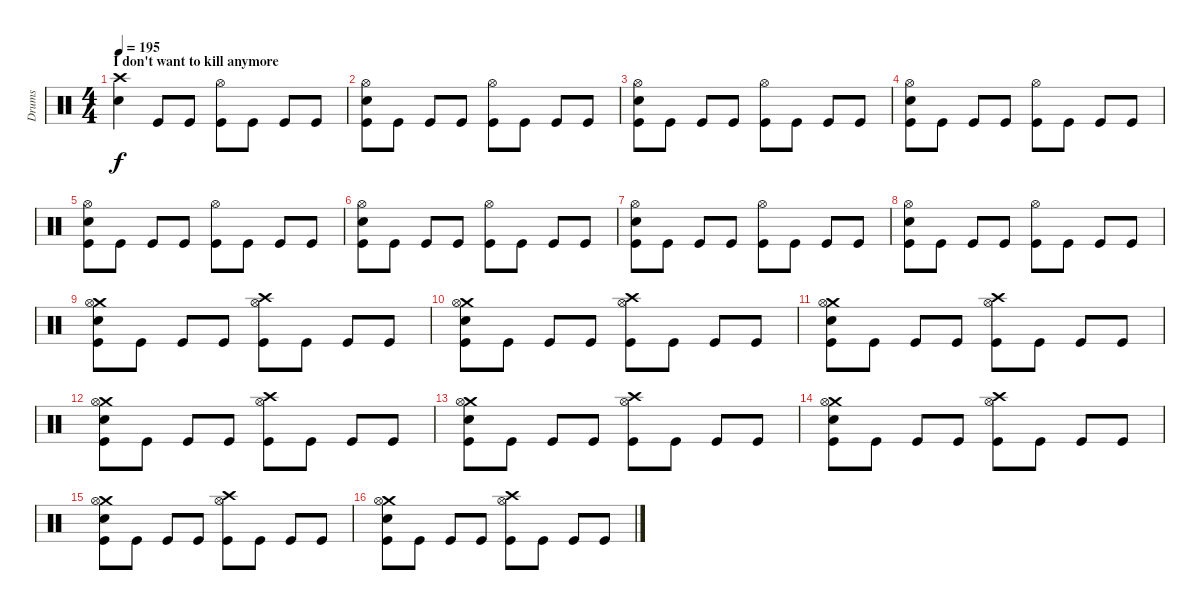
\track ("Drums" "Drums") {instrument percussion}
\staff {score}
\articulation defaults
\ts (4 4)
\section ("" "I don't want to kill anymore")
\tempo 195
\clef neutral
\ks c
("Crash high (hit)" "Electric Snare (hit)").4{dy f} "Kick (hit)".8 "Kick (hit)".8 ("Hi-Hat (open)" "Kick (hit)").8 "Kick (hit)".8 "Kick (hit)".8 "Kick (hit)".8 |
("Hi-Hat (open)" "Electric Snare (hit)" "Kick (hit)").8 "Kick (hit)".8 "Kick (hit)".8 "Kick (hit)".8 ("Hi-Hat (open)" "Kick (hit)").8 "Kick (hit)".8 "Kick (hit)".8 "Kick (hit)".8 |
("Electric Snare (hit)" "Hi-Hat (open)" "Kick (hit)").8 "Kick (hit)".8 "Kick (hit)".8 "Kick (hit)".8 ("Hi-Hat (open)" "Kick (hit)").8 "Kick (hit)".8 "Kick (hit)".8 "Kick (hit)".8 |
("Hi-Hat (open)" "Electric Snare (hit)" "Kick (hit)").8 "Kick (hit)".8 "Kick (hit)".8 "Kick (hit)".8 ("Hi-Hat (open)" "Kick (hit)").8 "Kick (hit)".8 "Kick (hit)".8 "Kick (hit)".8 |
("Electric Snare (hit)" "Hi-Hat (open)" "Kick (hit)").8 "Kick (hit)".8 "Kick (hit)".8 "Kick (hit)".8 ("Hi-Hat (open)" "Kick (hit)").8 "Kick (hit)".8 "Kick (hit)".8 "Kick (hit)".8 |
("Hi-Hat (open)" "Electric Snare (hit)" "Kick (hit)").8 "Kick (hit)".8 "Kick (hit)".8 "Kick (hit)".8 ("Hi-Hat (open)" "Kick (hit)").8 "Kick (hit)".8 "Kick (hit)".8 "Kick (hit)".8 |
("Electric Snare (hit)" "Hi-Hat (open)" "Kick (hit)").8 "Kick (hit)".8 "Kick (hit)".8 "Kick (hit)".8 ("Hi-Hat (open)" "Kick (hit)").8 "Kick (hit)".8 "Kick (hit)".8 "Kick (hit)".8 |
("Hi-Hat (open)" "Electric Snare (hit)" "Kick (hit)").8 "Kick (hit)".8 "Kick (hit)".8 "Kick (hit)".8 ("Hi-Hat (open)" "Kick (hit)").8 "Kick (hit)".8 "Kick (hit)".8 "Kick (hit)".8 |
("Crash medium (hit)" "Electric Snare (hit)" "Hi-Hat (open)" "Kick (hit)").8 "Kick (hit)".8 "Kick (hit)".8 "Kick (hit)".8 ("Crash high (hit)" "Hi-Hat (open)" "Kick (hit)").8 "Kick (hit)".8 "Kick (hit)".8 "Kick (hit)".8 |
("Crash medium (hit)" "Hi-Hat (open)" "Electric Snare (hit)" "Kick (hit)").8 "Kick (hit)".8 "Kick (hit)".8 "Kick (hit)".8 ("Crash high (hit)" "Hi-Hat (open)" "Kick (hit)").8 "Kick (hit)".8 "Kick (hit)".8 "Kick (hit)".8 |
("Crash medium (hit)" "Electric Snare (hit)" "Hi-Hat (open)" "Kick (hit)").8 "Kick (hit)".8 "Kick (hit)".8 "Kick (hit)".8 ("Crash high (hit)" "Hi-Hat (open)" "Kick (hit)").8 "Kick (hit)".8 "Kick (hit)".8 "Kick (hit)".8 |
("Crash medium (hit)" "Hi-Hat (open)" "Electric Snare (hit)" "Kick (hit)").8 "Kick (hit)".8 "Kick (hit)".8 "Kick (hit)".8 ("Crash high (hit)" "Hi-Hat (open)" "Kick (hit)").8 "Kick (hit)".8 "Kick (hit)".8 "Kick (hit)".8 |
("Crash medium (hit)" "Electric Snare (hit)" "Hi-Hat (open)" "Kick (hit)").8 "Kick (hit)".8 "Kick (hit)".8 "Kick (hit)".8 ("Crash high (hit)" "Hi-Hat (open)" "Kick (hit)").8 "Kick (hit)".8 "Kick (hit)".8 "Kick (hit)".8 |
("Crash medium (hit)" "Hi-Hat (open)" "Electric Snare (hit)" "Kick (hit)").8 "Kick (hit)".8 "Kick (hit)".8 "Kick (hit)".8 ("Crash high (hit)" "Hi-Hat (open)" "Kick (hit)").8 "Kick (hit)".8 "Kick (hit)".8 "Kick (hit)".8 |
("Crash medium (hit)" "Electric Snare (hit)" "Hi-Hat (open)" "Kick (hit)").8 "Kick (hit)".8 "Kick (hit)".8 "Kick (hit)".8 ("Crash high (hit)" "Hi-Hat (open)" "Kick (hit)").8 "Kick (hit)".8 "Kick (hit)".8 "Kick (hit)".8 |
("Crash medium (hit)" "Hi-Hat (open)" "Electric Snare (hit)" "Kick (hit)").8 "Kick (hit)".8 "Kick (hit)".8 "Kick (hit)".8 ("Crash high (hit)" "Hi-Hat (open)" "Kick (hit)").8 "Kick (hit)".8 "Kick (hit)".8 "Kick (hit)".8
